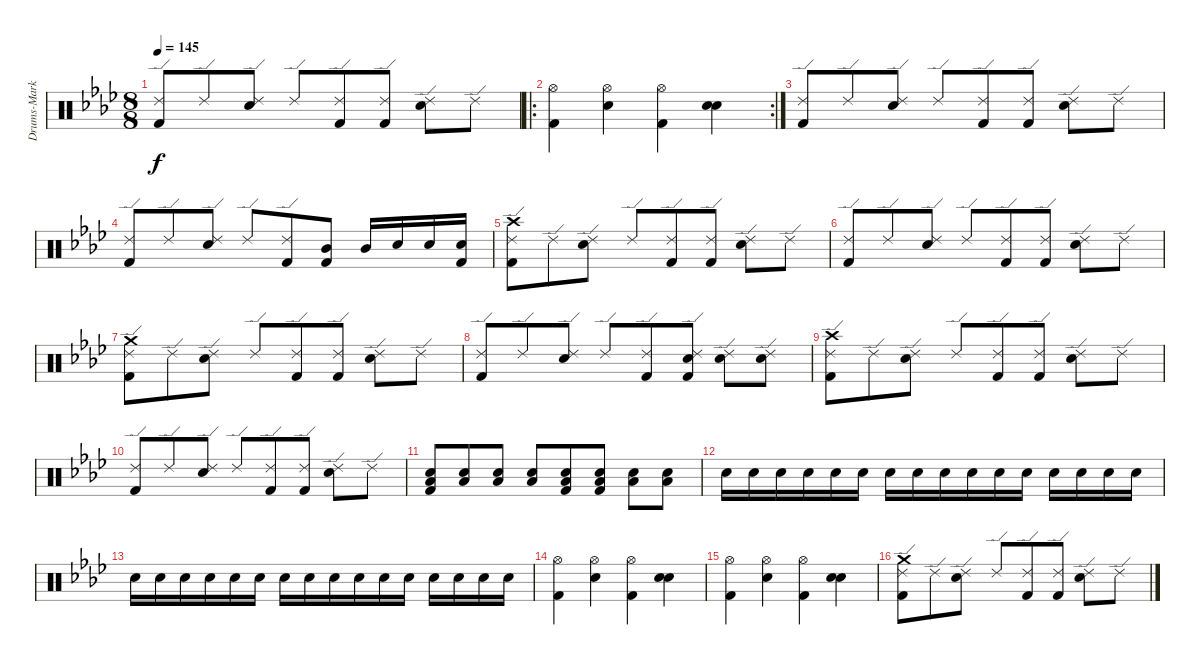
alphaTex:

\track ("Drums-Marky" "Drums-Mark") {instrument percussion}
\staff {score}
\articulation defaults
\ts (8 8)
\tempo 145
\clef neutral
\ks ab
("Ride (edge) 2" "Kick (hit) 2").8{dy f} "Ride (edge) 2".8 ("Ride (edge) 2" "Snare (hit) 2").8 "Ride (edge) 2".8 ("Ride (edge) 2" "Kick (hit) 2").8 ("Ride (edge) 2" "Kick (hit) 2").8 ("Ride (edge) 2" "Snare (hit) 2").8 "Ride (edge) 2".8 |
\ro
\rc 2
("Hi-Hat (open)" "Kick (hit) 2").4 ("Hi-Hat (open)" "Snare (hit) 2").4 ("Hi-Hat (open)" "Kick (hit) 2").4 ("Snare (hit) 2" "Snare (hit) 2").4 |
("Ride (edge) 2" "Kick (hit) 2").8 "Ride (edge) 2".8 ("Ride (edge) 2" "Snare (hit) 2").8 "Ride (edge) 2".8 ("Ride (edge) 2" "Kick (hit) 2").8 ("Ride (edge) 2" "Kick (hit) 2").8 ("Ride (edge) 2" "Snare (hit) 2").8 "Ride (edge) 2".8 |
("Ride (edge) 2" "Kick (hit) 2").8 "Ride (edge) 2".8 ("Ride (edge) 2" "Snare (hit) 2").8 "Ride (edge) 2".8 ("Ride (edge) 2" "Kick (hit) 2").8 ("Mid Tom (hit)" "Kick (hit) 2").8 "Mid Tom (hit)".16 "Snare (hit) 2".16 "Snare (hit) 2".16 ("Snare (hit) 2" "Kick (hit) 2").16 |
("Ride (edge) 2" "Kick (hit) 2" "Crash high (hit)").8 "Ride (edge) 2".8 ("Ride (edge) 2" "Snare (hit) 2").8 "Ride (edge) 2".8 ("Ride (edge) 2" "Kick (hit) 2").8 ("Ride (edge) 2" "Kick (hit) 2").8 ("Ride (edge) 2" "Snare (hit) 2").8 "Ride (edge) 2".8 |
("Ride (edge) 2" "Kick (hit) 2").8 "Ride (edge) 2".8 ("Ride (edge) 2" "Snare (hit) 2").8 "Ride (edge) 2".8 ("Ride (edge) 2" "Kick (hit) 2").8 ("Ride (edge) 2" "Kick (hit) 2").8 ("Ride (edge) 2" "Snare (hit) 2").8 "Ride (edge) 2".8 |
("Ride (edge) 2" "Kick (hit) 2" "Crash medium (hit)").8 "Ride (edge) 2".8 ("Ride (edge) 2" "Snare (hit) 2").8 "Ride (edge) 2".8 ("Ride (edge) 2" "Kick (hit) 2").8 ("Ride (edge) 2" "Kick (hit) 2").8 ("Ride (edge) 2" "Snare (hit) 2").8 "Ride (edge) 2".8 |
("Ride (edge) 2" "Kick (hit) 2").8 "Ride (edge) 2".8 ("Ride (edge) 2" "Snare (hit) 2").8 "Ride (edge) 2".8 ("Ride (edge) 2" "Kick (hit) 2").8 ("Ride (edge) 2" "Snare (hit) 2" "Kick (hit) 2").8 ("Ride (edge) 2" "Snare (hit) 2").8 ("Ride (edge) 2" "Snare (hit) 2").8 |
("Ride (edge) 2" "Kick (hit) 2" "Crash high (hit)").8 "Ride (edge) 2".8 ("Ride (edge) 2" "Snare (hit) 2").8 "Ride (edge) 2".8 ("Ride (edge) 2" "Kick (hit) 2").8 ("Ride (edge) 2" "Kick (hit) 2").8 ("Ride (edge) 2" "Snare (hit) 2").8 "Ride (edge) 2".8 |
("Ride (edge) 2" "Kick (hit) 2").8 "Ride (edge) 2".8 ("Ride (edge) 2" "Snare (hit) 2").8 "Ride (edge) 2".8 ("Ride (edge) 2" "Kick (hit) 2").8 ("Ride (edge) 2" "Kick (hit) 2").8 ("Ride (edge) 2" "Snare (hit) 2").8 "Ride (edge) 2".8 |
("Low Floor Tom (hit)" "Snare (hit) 2" "Kick (hit) 2").8 ("Low Floor Tom (hit)" "Snare (hit) 2").8 ("Low Floor Tom (hit)" "Snare (hit) 2").8 ("Low Floor Tom (hit)" "Snare (hit) 2").8 ("Low Floor Tom (hit)" "Snare (hit) 2" "Kick (hit) 2").8 ("Low Floor Tom (hit)" "Snare (hit) 2" "Kick (hit) 2").8 ("Low Floor Tom (hit)" "Snare (hit) 2").8 ("Low Floor Tom (hit)" "Snare (hit) 2").8 |
"Snare (hit) 2".16 "Snare (hit) 2".16 "Snare (hit) 2".16 "Snare (hit) 2".16 "Snare (hit) 2".16 "Snare (hit) 2".16 "Snare (hit) 2".16 "Snare (hit) 2".16 "Snare (hit) 2".16 "Snare (hit) 2".16 "Snare (hit) 2".16 "Snare (hit) 2".16 "Snare (hit) 2".16 "Snare (hit) 2".16 "Snare (hit) 2".16 "Snare (hit) 2".16 |
"Snare (hit) 2".16 "Snare (hit) 2".16 "Snare (hit) 2".16 "Snare (hit) 2".16 "Snare (hit) 2".16 "Snare (hit) 2".16 "Snare (hit) 2".16 "Snare (hit) 2".16 "Snare (hit) 2".16 "Snare (hit) 2".16 "Snare (hit) 2".16 "Snare (hit) 2".16 "Snare (hit) 2".16 "Snare (hit) 2".16 "Snare (hit) 2".16 "Snare (hit) 2".16 |
("Hi-Hat (open)" "Kick (hit) 2").4 ("Hi-Hat (open)" "Snare (hit) 2").4 ("Hi-Hat (open)" "Kick (hit) 2").4 ("Snare (hit) 2" "Snare (hit) 2").4 |
("Hi-Hat (open)" "Kick (hit) 2").4 ("Hi-Hat (open)" "Snare (hit) 2").4 ("Hi-Hat (open)" "Kick (hit) 2").4 ("Snare (hit) 2" "Snare (hit) 2").4 |
("Ride (edge) 2" "Kick (hit) 2" "Crash medium (hit)").8 "Ride (edge) 2".8 ("Ride (edge) 2" "Snare (hit) 2").8 "Ride (edge) 2".8 ("Ride (edge) 2" "Kick (hit) 2").8 ("Ride (edge) 2" "Kick (hit) 2").8 ("Ride (edge) 2" "Snare (hit) 2").8 "Ride (edge) 2".8
